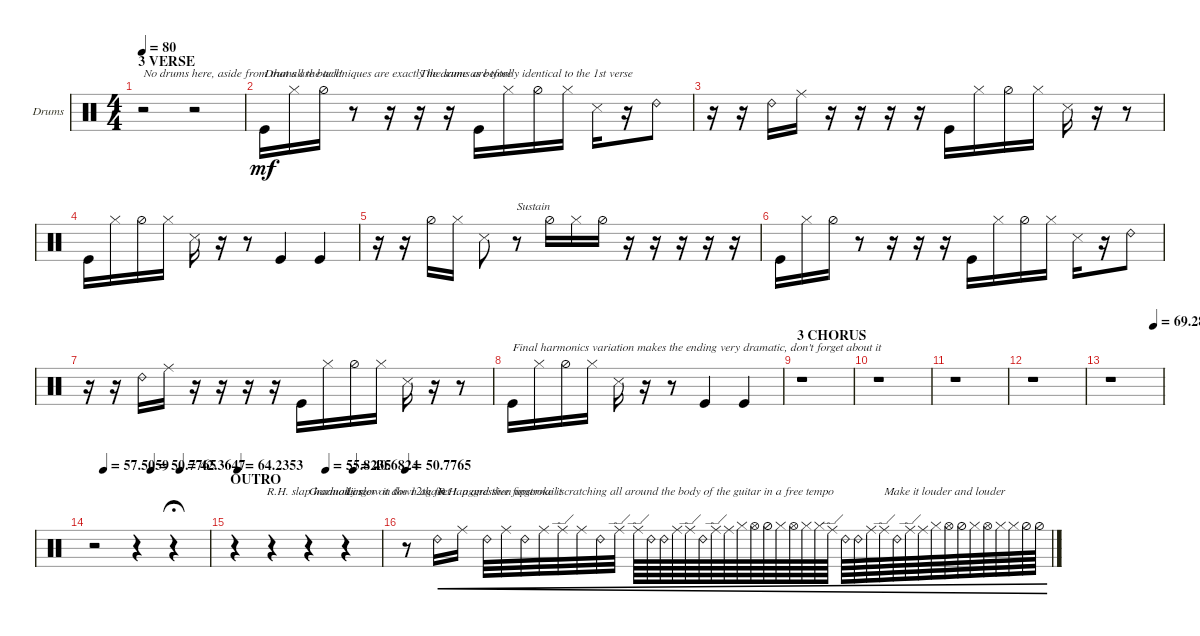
\defaultSystemsLayout 4
\bracketExtendMode groupsimilarinstruments
\firstSystemTrackNameOrientation horizontal
\otherSystemsTrackNameOrientation horizontal
\track ("Guitar Percussion" "Drums") {instrument percussion}
\staff {score}
\articulation defaults
\ts (4 4)
\section ("" "3 VERSE")
\tempo 80
\clef neutral
\ks c
r.2{txt "No drums here, aside from that all the techniques are exactly the same as before" dy mf} r.2{txt "                             "} |
"Kick (hit)".16{txt "Drums are back!"} "Hi-Hat (closed)".16 "Hi-Hat (half)".16 r.8 r.16 r.16{txt "The drums are totally identical to the 1st verse"} r.16 "Kick (hit)".16 "Hi-Hat (closed)".16 "Hi-Hat (half)".16 "Hi-Hat (closed)".16 "Snare (side stick) 3".16 r.16 "Ride (bell) 2".8 |
r.16 r.16 "Ride (bell) 2".16 "Ride (middle)".16 r.16 r.16 r.16 r.16 "Kick (hit)".16 "Hi-Hat (closed)".16 "Hi-Hat (half)".16 "Hi-Hat (closed)".16 "Snare (side stick) 3".16 r.16 r.8 |
"Kick (hit)".16 "Hi-Hat (closed)".16 "Hi-Hat (half)".16 "Hi-Hat (closed)".16 "Snare (side stick) 3".16 r.16 r.8 "Kick (hit)".4 "Kick (hit)".4 |
r.16 r.16 "Hi-Hat (half)".16 "Hi-Hat (closed)".16 "Snare (side stick) 3".8 r.8{txt "Sustain"} "Hi-Hat (half)".16 "Hi-Hat (closed)".16 "Hi-Hat (half)".16 r.16 r.16 r.16 r.16 r.16 |
"Kick (hit)".16 "Hi-Hat (closed)".16 "Hi-Hat (half)".16 r.8 r.16 r.16 r.16 "Kick (hit)".16 "Hi-Hat (closed)".16 "Hi-Hat (half)".16 "Hi-Hat (closed)".16 "Snare (side stick) 3".16 r.16 "Ride (bell) 2".8 |
r.16 r.16 "Ride (bell) 2".16 "Ride (middle)".16 r.16 r.16 r.16 r.16 "Kick (hit)".16 "Hi-Hat (closed)".16 "Hi-Hat (half)".16 "Hi-Hat (closed)".16 "Snare (side stick) 3".16 r.16 r.8 |
"Kick (hit)".16{txt "Final harmonics variation makes the ending very dramatic, don't forget about it"} "Hi-Hat (closed)".16 "Hi-Hat (half)".16 "Hi-Hat (closed)".16 "Snare (side stick) 3".16 r.16 r.8 "Kick (hit)".4 "Kick (hit)".4 |
\section ("" "3 CHORUS")
r.1 |
r.1 |
r.1 |
r.1 |
\tempo (69.2824 0.8375)
r.1 |
\tempo (57.5059 0.0875)
\tempo (50.7765 0.5)
\tempo (42.3647 0.75)
r.2 r.4 r.4{txt "                               R.H. slap harmonics" fermata (medium 0.5)} |
\section ("" "OUTRO")
\tempo (64.2353 0.025)
\tempo (55.8235 0.625)
\tempo (40.6824 0.8125)
r.4 r.4 r.4{txt "Gradually slow it down again"} r.4{txt "Linger on the 12th fret tap and then upstroke it "} |
\tempo
50.7765 r.8 "Ride (bell) 2".16{txt "R.H. aggressive fingernail scratching all around the body of the guitar in a free tempo" cre} "Ride (middle)".16{cre} "Ride (bell) 2".32{cre} "Ride (middle)".32{cre} "Ride (bell) 2".32{cre} "Ride (middle)".32{cre} "Ride (edge)".32{cre} "Ride (middle)".32{cre} "Ride (bell) 2".32{cre} "Ride (edge)".32{cre} "Ride (edge)".64{cre} "Ride (bell) 2".64{cre} "Ride (bell) 2".64{cre} "Ride (middle)".64{cre} "Ride (edge)".64{cre} "Ride (bell) 2".64{cre} "Ride (edge)".64{cre} "Ride (middle)".64{cre} "Hi-Hat (closed)".64{cre} "Hi-Hat (open)".64{cre} "Hi-Hat (half)".64{cre} "Hi-Hat (closed)".64{cre} "Hi-Hat (open)".64{cre} "Hi-Hat (closed)".64{cre} "Hi-Hat (closed)".64{cre} "Ride (edge)".64{cre} "Ride (bell) 2".64{cre} "Ride (bell) 2".64{cre} "Ride (middle)".64{cre} "Ride (edge)".64{txt "Make it louder and louder" cre} "Ride (bell) 2".64{cre} "Ride (edge)".64{cre} "Ride (middle)".64{cre} "Hi-Hat (closed)".64{cre} "Hi-Hat (open)".64{cre} "Hi-Hat (half)".64{cre} "Hi-Hat (closed)".64{cre} "Hi-Hat (open)".64{cre} "Hi-Hat (closed)".64{cre} "Hi-Hat (closed)".64{cre} "Hi-Hat (half)".64{cre} "Hi-Hat (half)".64{cre}
